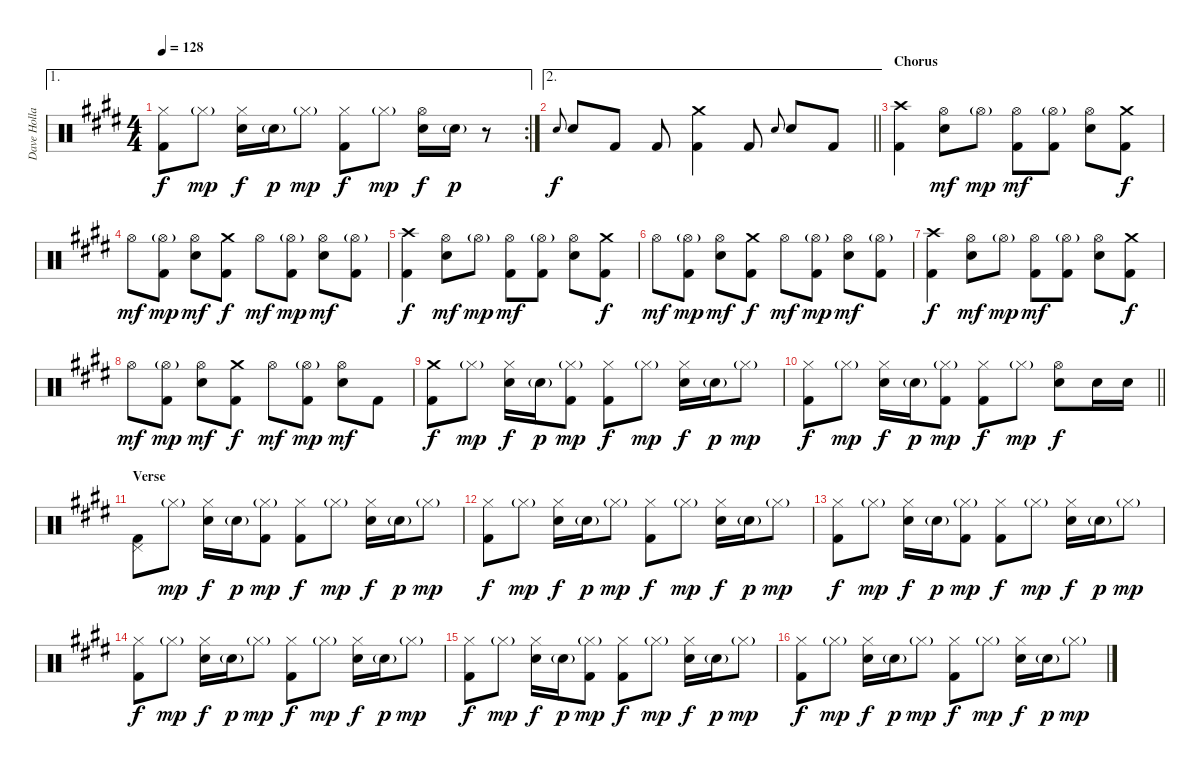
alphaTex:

\track ("Dave Holland" "Dave Holla") {instrument percussion}
\staff {score}
\articulation defaults
\ae 1
\rc 2
\ts (4 4)
\tempo 128
\clef neutral
\ks e
("Hi-Hat (closed)" "Kick (hit) 2").8{dy f} "Hi-Hat (closed)"{g}.8{dy mp} ("Hi-Hat (closed)" "Electric Snare (hit)").16{dy f} "Electric Snare (hit)"{g}.16{dy p} "Hi-Hat (closed)"{g}.8{dy mp} ("Hi-Hat (closed)" "Kick (hit) 2").8{dy f} "Hi-Hat (closed)"{g}.8{dy mp} ("Hi-Hat (open)" "Electric Snare (hit)").16{dy f} "Electric Snare (hit)"{g}.16{dy p} r.8 |
\ae 2
\barLineRight lightlight "Electric Snare (hit)".8{gr onbeat dy f} "Electric Snare (hit)".8 "Kick (hit) 2".8 "Kick (hit) 2".8
("Crash medium (hit)" "Kick (hit) 2").4 "Kick (hit) 2".8 "Electric Snare (hit)".8{gr onbeat} "Electric Snare (hit)".8 "Kick (hit) 2".8 |
\section ("" "Chorus")
("Crash high (hit)" "Kick (hit) 2").4 ("Hi-Hat (open)" "Electric Snare (hit)").8{dy mf} "Hi-Hat (open)"{g}.8{dy mp} ("Hi-Hat (open)" "Kick (hit) 2").8{dy mf} ("Hi-Hat (open)"{g} "Kick (hit) 2").8 ("Hi-Hat (open)" "Electric Snare (hit)").8 ("Crash medium (hit)" "Kick (hit) 2").8{dy f} |
"Hi-Hat (open)".8{dy mf} ("Hi-Hat (open)"{g} "Kick (hit) 2").8{dy mp} ("Hi-Hat (open)" "Electric Snare (hit)").8{dy mf} ("Crash medium (hit)" "Kick (hit) 2").8{dy f} "Hi-Hat (open)".8{dy mf} ("Hi-Hat (open)"{g} "Kick (hit) 2").8{dy mp} ("Hi-Hat (open)" "Electric Snare (hit)").8{dy mf} ("Hi-Hat (open)"{g} "Kick (hit) 2").8 |
("Crash high (hit)" "Kick (hit) 2").4{dy f} ("Hi-Hat (open)" "Electric Snare (hit)").8{dy mf} "Hi-Hat (open)"{g}.8{dy mp} ("Hi-Hat (open)" "Kick (hit) 2").8{dy mf} ("Hi-Hat (open)"{g} "Kick (hit) 2").8 ("Hi-Hat (open)" "Electric Snare (hit)").8 ("Crash medium (hit)" "Kick (hit) 2").8{dy f} |
"Hi-Hat (open)".8{dy mf} ("Hi-Hat (open)"{g} "Kick (hit) 2").8{dy mp} ("Hi-Hat (open)" "Electric Snare (hit)").8{dy mf} ("Crash medium (hit)" "Kick (hit) 2").8{dy f} "Hi-Hat (open)".8{dy mf} ("Hi-Hat (open)"{g} "Kick (hit) 2").8{dy mp} ("Hi-Hat (open)" "Electric Snare (hit)").8{dy mf} ("Hi-Hat (open)"{g} "Kick (hit) 2").8 |
("Crash high (hit)" "Kick (hit) 2").4{dy f} ("Hi-Hat (open)" "Electric Snare (hit)").8{dy mf} "Hi-Hat (open)"{g}.8{dy mp} ("Hi-Hat (open)" "Kick (hit) 2").8{dy mf} ("Hi-Hat (open)"{g} "Kick (hit) 2").8 ("Hi-Hat (open)" "Electric Snare (hit)").8 ("Crash medium (hit)" "Kick (hit) 2").8{dy f} |
"Hi-Hat (open)".8{dy mf} ("Hi-Hat (open)"{g} "Kick (hit) 2").8{dy mp} ("Hi-Hat (open)" "Electric Snare (hit)").8{dy mf} ("Crash medium (hit)" "Kick (hit) 2").8{dy f} "Hi-Hat (open)".8{dy mf} ("Hi-Hat (open)"{g} "Kick (hit) 2").8{dy mp} ("Hi-Hat (open)" "Electric Snare (hit)").8{dy mf} "Kick (hit) 2".8 |
("Crash medium (hit)" "Kick (hit) 2").8{dy f} "Hi-Hat (closed)"{g}.8{dy mp} ("Hi-Hat (closed)" "Electric Snare (hit)").16{dy f} "Electric Snare (hit)"{g}.16{dy p} ("Hi-Hat (closed)"{g} "Kick (hit) 2").8{dy mp} ("Hi-Hat (closed)" "Kick (hit) 2").8{dy f} "Hi-Hat (closed)"{g}.8{dy mp} ("Hi-Hat (closed)" "Electric Snare (hit)").16{dy f} "Electric Snare (hit)"{g}.16{dy p} "Hi-Hat (closed)"{g}.8{dy mp} |
\barLineRight lightlight
("Hi-Hat (closed)" "Kick (hit) 2").8{dy f} "Hi-Hat (closed)"{g}.8{dy mp} ("Hi-Hat (closed)" "Electric Snare (hit)").16{dy f} "Electric Snare (hit)"{g}.16{dy p} ("Hi-Hat (closed)"{g} "Kick (hit) 2").8{dy mp} ("Hi-Hat (closed)" "Kick (hit) 2").8{dy f} "Hi-Hat (closed)"{g}.8{dy mp} ("Hi-Hat (open)" "Electric Snare (hit)").8{dy f} "Electric Snare (hit)".16 "Electric Snare (hit)".16 |
\section ("" "Verse")
("Pedal Hi-Hat (hit)" "Kick (hit) 2").8 "Hi-Hat (closed)"{g}.8{dy mp} ("Hi-Hat (closed)" "Electric Snare (hit)").16{dy f} "Electric Snare (hit)"{g}.16{dy p} ("Hi-Hat (closed)"{g} "Kick (hit) 2").8{dy mp} ("Hi-Hat (closed)" "Kick (hit) 2").8{dy f} "Hi-Hat (closed)"{g}.8{dy mp} ("Hi-Hat (closed)" "Electric Snare (hit)").16{dy f} "Electric Snare (hit)"{g}.16{dy p} "Hi-Hat (closed)"{g}.8{dy mp} |
("Hi-Hat (closed)" "Kick (hit) 2").8{dy f} "Hi-Hat (closed)"{g}.8{dy mp} ("Hi-Hat (closed)" "Electric Snare (hit)").16{dy f} "Electric Snare (hit)"{g}.16{dy p} "Hi-Hat (closed)"{g}.8{dy mp} ("Hi-Hat (closed)" "Kick (hit) 2").8{dy f} "Hi-Hat (closed)"{g}.8{dy mp} ("Hi-Hat (closed)" "Electric Snare (hit)").16{dy f} "Electric Snare (hit)"{g}.16{dy p} "Hi-Hat (closed)"{g}.8{dy mp} |
("Hi-Hat (closed)" "Kick (hit) 2").8{dy f} "Hi-Hat (closed)"{g}.8{dy mp} ("Hi-Hat (closed)" "Electric Snare (hit)").16{dy f} "Electric Snare (hit)"{g}.16{dy p} ("Hi-Hat (closed)"{g} "Kick (hit) 2").8{dy mp} ("Hi-Hat (closed)" "Kick (hit) 2").8{dy f} "Hi-Hat (closed)"{g}.8{dy mp} ("Hi-Hat (closed)" "Electric Snare (hit)").16{dy f} "Electric Snare (hit)"{g}.16{dy p} "Hi-Hat (closed)"{g}.8{dy mp} |
("Hi-Hat (closed)" "Kick (hit) 2").8{dy f} "Hi-Hat (closed)"{g}.8{dy mp} ("Hi-Hat (closed)" "Electric Snare (hit)").16{dy f} "Electric Snare (hit)"{g}.16{dy p} "Hi-Hat (closed)"{g}.8{dy mp} ("Hi-Hat (closed)" "Kick (hit) 2").8{dy f} "Hi-Hat (closed)"{g}.8{dy mp} ("Hi-Hat (closed)" "Electric Snare (hit)").16{dy f} "Electric Snare (hit)"{g}.16{dy p} "Hi-Hat (closed)"{g}.8{dy mp} |
("Hi-Hat (closed)" "Kick (hit) 2").8{dy f} "Hi-Hat (closed)"{g}.8{dy mp} ("Hi-Hat (closed)" "Electric Snare (hit)").16{dy f} "Electric Snare (hit)"{g}.16{dy p} ("Hi-Hat (closed)"{g} "Kick (hit) 2").8{dy mp} ("Hi-Hat (closed)" "Kick (hit) 2").8{dy f} "Hi-Hat (closed)"{g}.8{dy mp} ("Hi-Hat (closed)" "Electric Snare (hit)").16{dy f} "Electric Snare (hit)"{g}.16{dy p} "Hi-Hat (closed)"{g}.8{dy mp} |
("Hi-Hat (closed)" "Kick (hit) 2").8{dy f} "Hi-Hat (closed)"{g}.8{dy mp} ("Hi-Hat (closed)" "Electric Snare (hit)").16{dy f} "Electric Snare (hit)"{g}.16{dy p} "Hi-Hat (closed)"{g}.8{dy mp} ("Hi-Hat (closed)" "Kick (hit) 2").8{dy f} "Hi-Hat (closed)"{g}.8{dy mp} ("Hi-Hat (closed)" "Electric Snare (hit)").16{dy f} "Electric Snare (hit)"{g}.16{dy p} "Hi-Hat (closed)"{g}.8{dy mp}
